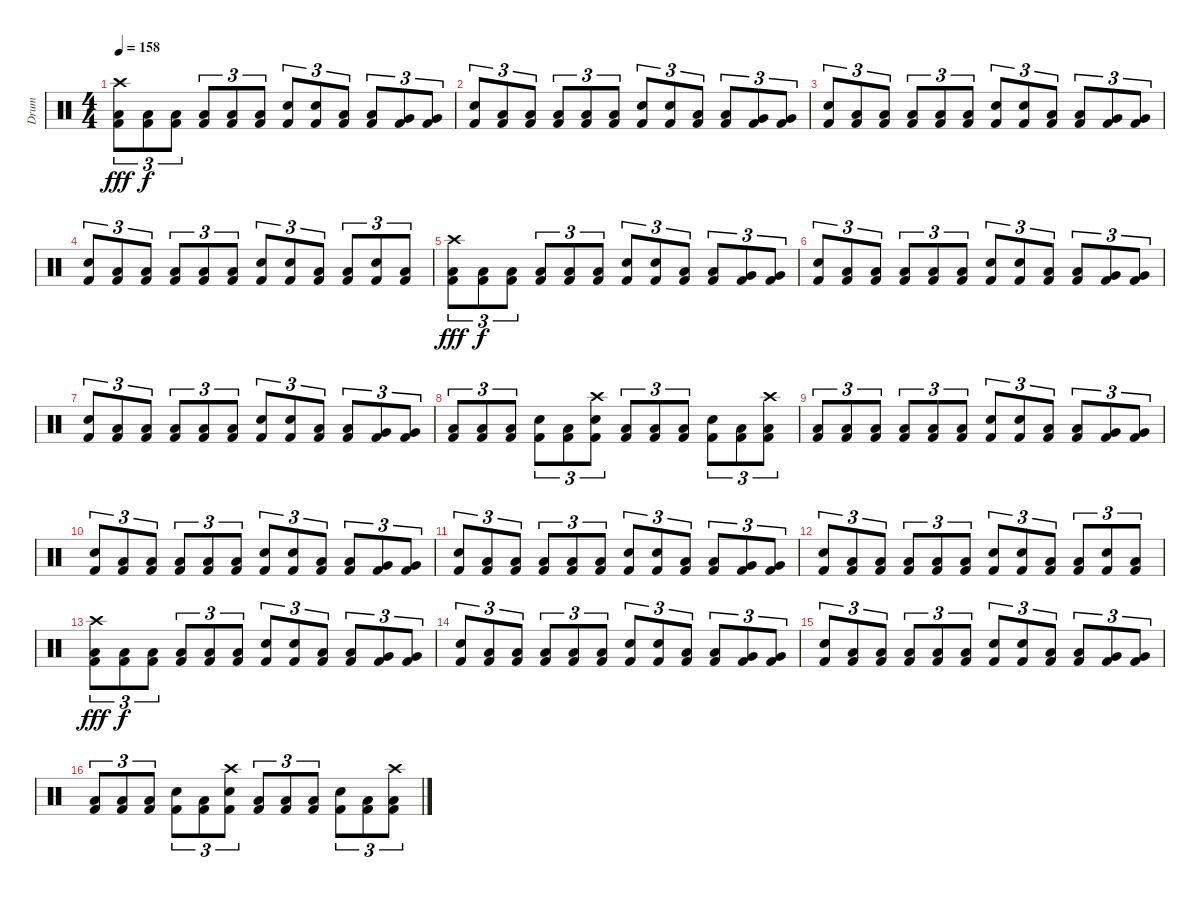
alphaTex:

\track ("Drum" "Drum") {instrument percussion}
\staff {score}
\articulation defaults
\ts (4 4)
\tempo 158
\clef neutral
\ks c
("Crash high (hit)" "Low Floor Tom (hit)" "Kick (hit) 2").8{tu (3 2) dy fff} ("Low Floor Tom (hit)" "Kick (hit) 2").8{tu (3 2) dy f} ("Low Floor Tom (hit)" "Kick (hit) 2").8{tu (3 2)} ("Low Floor Tom (hit)" "Kick (hit) 2").8{tu (3 2)} ("Low Floor Tom (hit)" "Kick (hit) 2").8{tu (3 2)} ("Low Floor Tom (hit)" "Kick (hit) 2").8{tu (3 2)} ("Electric Snare (hit)" "Kick (hit) 2").8{tu (3 2)} ("Electric Snare (hit)" "Kick (hit) 2").8{tu (3 2)} ("Low Tom (hit)" "Kick (hit) 2").8{tu (3 2)} ("Low Tom (hit)" "Kick (hit) 2").8{tu (3 2)} ("Very Low Tom (hit)" "Kick (hit) 2").8{tu (3 2)} ("Very Low Tom (hit)" "Kick (hit) 2").8{tu (3 2)} |
("Electric Snare (hit)" "Kick (hit) 2").8{tu (3 2)} ("Low Floor Tom (hit)" "Kick (hit) 2").8{tu (3 2)} ("Low Floor Tom (hit)" "Kick (hit) 2").8{tu (3 2)} ("Low Floor Tom (hit)" "Kick (hit) 2").8{tu (3 2)} ("Low Floor Tom (hit)" "Kick (hit) 2").8{tu (3 2)} ("Low Floor Tom (hit)" "Kick (hit) 2").8{tu (3 2)} ("Electric Snare (hit)" "Kick (hit) 2").8{tu (3 2)} ("Electric Snare (hit)" "Kick (hit) 2").8{tu (3 2)} ("Low Tom (hit)" "Kick (hit) 2").8{tu (3 2)} ("Low Tom (hit)" "Kick (hit) 2").8{tu (3 2)} ("Very Low Tom (hit)" "Kick (hit) 2").8{tu (3 2)} ("Very Low Tom (hit)" "Kick (hit) 2").8{tu (3 2)} |
("Electric Snare (hit)" "Kick (hit) 2").8{tu (3 2)} ("Low Floor Tom (hit)" "Kick (hit) 2").8{tu (3 2)} ("Low Floor Tom (hit)" "Kick (hit) 2").8{tu (3 2)} ("Low Floor Tom (hit)" "Kick (hit) 2").8{tu (3 2)} ("Low Floor Tom (hit)" "Kick (hit) 2").8{tu (3 2)} ("Low Floor Tom (hit)" "Kick (hit) 2").8{tu (3 2)} ("Electric Snare (hit)" "Kick (hit) 2").8{tu (3 2)} ("Electric Snare (hit)" "Kick (hit) 2").8{tu (3 2)} ("Low Tom (hit)" "Kick (hit) 2").8{tu (3 2)} ("Low Tom (hit)" "Kick (hit) 2").8{tu (3 2)} ("Very Low Tom (hit)" "Kick (hit) 2").8{tu (3 2)} ("Very Low Tom (hit)" "Kick (hit) 2").8{tu (3 2)} |
("Electric Snare (hit)" "Kick (hit) 2").8{tu (3 2)} ("Low Floor Tom (hit)" "Kick (hit) 2").8{tu (3 2)} ("Low Floor Tom (hit)" "Kick (hit) 2").8{tu (3 2)} ("Low Floor Tom (hit)" "Kick (hit) 2").8{tu (3 2)} ("Low Floor Tom (hit)" "Kick (hit) 2").8{tu (3 2)} ("Low Floor Tom (hit)" "Kick (hit) 2").8{tu (3 2)} ("Electric Snare (hit)" "Kick (hit) 2").8{tu (3 2)} ("Electric Snare (hit)" "Kick (hit) 2").8{tu (3 2)} ("Low Floor Tom (hit)" "Kick (hit) 2").8{tu (3 2)} ("Low Floor Tom (hit)" "Kick (hit) 2").8{tu (3 2)} ("Electric Snare (hit)" "Kick (hit) 2").8{tu (3 2)} ("Low Floor Tom (hit)" "Kick (hit) 2").8{tu (3 2)} |
("Crash high (hit)" "Low Floor Tom (hit)" "Kick (hit) 2").8{tu (3 2) dy fff} ("Low Floor Tom (hit)" "Kick (hit) 2").8{tu (3 2) dy f} ("Low Floor Tom (hit)" "Kick (hit) 2").8{tu (3 2)} ("Low Floor Tom (hit)" "Kick (hit) 2").8{tu (3 2)} ("Low Floor Tom (hit)" "Kick (hit) 2").8{tu (3 2)} ("Low Floor Tom (hit)" "Kick (hit) 2").8{tu (3 2)} ("Electric Snare (hit)" "Kick (hit) 2").8{tu (3 2)} ("Electric Snare (hit)" "Kick (hit) 2").8{tu (3 2)} ("Low Tom (hit)" "Kick (hit) 2").8{tu (3 2)} ("Low Tom (hit)" "Kick (hit) 2").8{tu (3 2)} ("Very Low Tom (hit)" "Kick (hit) 2").8{tu (3 2)} ("Very Low Tom (hit)" "Kick (hit) 2").8{tu (3 2)} |
("Electric Snare (hit)" "Kick (hit) 2").8{tu (3 2)} ("Low Floor Tom (hit)" "Kick (hit) 2").8{tu (3 2)} ("Low Floor Tom (hit)" "Kick (hit) 2").8{tu (3 2)} ("Low Floor Tom (hit)" "Kick (hit) 2").8{tu (3 2)} ("Low Floor Tom (hit)" "Kick (hit) 2").8{tu (3 2)} ("Low Floor Tom (hit)" "Kick (hit) 2").8{tu (3 2)} ("Electric Snare (hit)" "Kick (hit) 2").8{tu (3 2)} ("Electric Snare (hit)" "Kick (hit) 2").8{tu (3 2)} ("Low Tom (hit)" "Kick (hit) 2").8{tu (3 2)} ("Low Tom (hit)" "Kick (hit) 2").8{tu (3 2)} ("Very Low Tom (hit)" "Kick (hit) 2").8{tu (3 2)} ("Very Low Tom (hit)" "Kick (hit) 2").8{tu (3 2)} |
("Electric Snare (hit)" "Kick (hit) 2").8{tu (3 2)} ("Low Floor Tom (hit)" "Kick (hit) 2").8{tu (3 2)} ("Low Floor Tom (hit)" "Kick (hit) 2").8{tu (3 2)} ("Low Floor Tom (hit)" "Kick (hit) 2").8{tu (3 2)} ("Low Floor Tom (hit)" "Kick (hit) 2").8{tu (3 2)} ("Low Floor Tom (hit)" "Kick (hit) 2").8{tu (3 2)} ("Electric Snare (hit)" "Kick (hit) 2").8{tu (3 2)} ("Electric Snare (hit)" "Kick (hit) 2").8{tu (3 2)} ("Low Tom (hit)" "Kick (hit) 2").8{tu (3 2)} ("Low Tom (hit)" "Kick (hit) 2").8{tu (3 2)} ("Very Low Tom (hit)" "Kick (hit) 2").8{tu (3 2)} ("Very Low Tom (hit)" "Kick (hit) 2").8{tu (3 2)} |
("Low Floor Tom (hit)" "Kick (hit) 2").8{tu (3 2)} ("Low Floor Tom (hit)" "Kick (hit) 2").8{tu (3 2)} ("Low Floor Tom (hit)" "Kick (hit) 2").8{tu (3 2)} ("Electric Snare (hit)" "Kick (hit) 2").8{tu (3 2)} ("Low Floor Tom (hit)" "Kick (hit) 2").8{tu (3 2)} ("Crash high (hit)" "Electric Snare (hit)" "Kick (hit) 2").8{tu (3 2)} ("Low Floor Tom (hit)" "Kick (hit) 2").8{tu (3 2)} ("Low Floor Tom (hit)" "Kick (hit) 2").8{tu (3 2)} ("Low Floor Tom (hit)" "Kick (hit) 2").8{tu (3 2)} ("Electric Snare (hit)" "Kick (hit) 2").8{tu (3 2)} ("Low Floor Tom (hit)" "Kick (hit) 2").8{tu (3 2)} ("Crash high (hit)" "Low Floor Tom (hit)" "Kick (hit) 2").8{tu (3 2)} |
("Low Floor Tom (hit)" "Kick (hit) 2").8{tu (3 2)} ("Low Floor Tom (hit)" "Kick (hit) 2").8{tu (3 2)} ("Low Floor Tom (hit)" "Kick (hit) 2").8{tu (3 2)} ("Low Floor Tom (hit)" "Kick (hit) 2").8{tu (3 2)} ("Low Floor Tom (hit)" "Kick (hit) 2").8{tu (3 2)} ("Low Floor Tom (hit)" "Kick (hit) 2").8{tu (3 2)} ("Electric Snare (hit)" "Kick (hit) 2").8{tu (3 2)} ("Electric Snare (hit)" "Kick (hit) 2").8{tu (3 2)} ("Low Tom (hit)" "Kick (hit) 2").8{tu (3 2)} ("Low Tom (hit)" "Kick (hit) 2").8{tu (3 2)} ("Very Low Tom (hit)" "Kick (hit) 2").8{tu (3 2)} ("Very Low Tom (hit)" "Kick (hit) 2").8{tu (3 2)} |
("Electric Snare (hit)" "Kick (hit) 2").8{tu (3 2)} ("Low Floor Tom (hit)" "Kick (hit) 2").8{tu (3 2)} ("Low Floor Tom (hit)" "Kick (hit) 2").8{tu (3 2)} ("Low Floor Tom (hit)" "Kick (hit) 2").8{tu (3 2)} ("Low Floor Tom (hit)" "Kick (hit) 2").8{tu (3 2)} ("Low Floor Tom (hit)" "Kick (hit) 2").8{tu (3 2)} ("Electric Snare (hit)" "Kick (hit) 2").8{tu (3 2)} ("Electric Snare (hit)" "Kick (hit) 2").8{tu (3 2)} ("Low Tom (hit)" "Kick (hit) 2").8{tu (3 2)} ("Low Tom (hit)" "Kick (hit) 2").8{tu (3 2)} ("Very Low Tom (hit)" "Kick (hit) 2").8{tu (3 2)} ("Very Low Tom (hit)" "Kick (hit) 2").8{tu (3 2)} |
("Electric Snare (hit)" "Kick (hit) 2").8{tu (3 2)} ("Low Floor Tom (hit)" "Kick (hit) 2").8{tu (3 2)} ("Low Floor Tom (hit)" "Kick (hit) 2").8{tu (3 2)} ("Low Floor Tom (hit)" "Kick (hit) 2").8{tu (3 2)} ("Low Floor Tom (hit)" "Kick (hit) 2").8{tu (3 2)} ("Low Floor Tom (hit)" "Kick (hit) 2").8{tu (3 2)} ("Electric Snare (hit)" "Kick (hit) 2").8{tu (3 2)} ("Electric Snare (hit)" "Kick (hit) 2").8{tu (3 2)} ("Low Tom (hit)" "Kick (hit) 2").8{tu (3 2)} ("Low Tom (hit)" "Kick (hit) 2").8{tu (3 2)} ("Very Low Tom (hit)" "Kick (hit) 2").8{tu (3 2)} ("Very Low Tom (hit)" "Kick (hit) 2").8{tu (3 2)} |
("Electric Snare (hit)" "Kick (hit) 2").8{tu (3 2)} ("Low Floor Tom (hit)" "Kick (hit) 2").8{tu (3 2)} ("Low Floor Tom (hit)" "Kick (hit) 2").8{tu (3 2)} ("Low Floor Tom (hit)" "Kick (hit) 2").8{tu (3 2)} ("Low Floor Tom (hit)" "Kick (hit) 2").8{tu (3 2)} ("Low Floor Tom (hit)" "Kick (hit) 2").8{tu (3 2)} ("Electric Snare (hit)" "Kick (hit) 2").8{tu (3 2)} ("Electric Snare (hit)" "Kick (hit) 2").8{tu (3 2)} ("Low Floor Tom (hit)" "Kick (hit) 2").8{tu (3 2)} ("Low Floor Tom (hit)" "Kick (hit) 2").8{tu (3 2)} ("Electric Snare (hit)" "Kick (hit) 2").8{tu (3 2)} ("Low Floor Tom (hit)" "Kick (hit) 2").8{tu (3 2)} |
("Crash high (hit)" "Low Floor Tom (hit)" "Kick (hit) 2").8{tu (3 2) dy fff} ("Low Floor Tom (hit)" "Kick (hit) 2").8{tu (3 2) dy f} ("Low Floor Tom (hit)" "Kick (hit) 2").8{tu (3 2)} ("Low Floor Tom (hit)" "Kick (hit) 2").8{tu (3 2)} ("Low Floor Tom (hit)" "Kick (hit) 2").8{tu (3 2)} ("Low Floor Tom (hit)" "Kick (hit) 2").8{tu (3 2)} ("Electric Snare (hit)" "Kick (hit) 2").8{tu (3 2)} ("Electric Snare (hit)" "Kick (hit) 2").8{tu (3 2)} ("Low Tom (hit)" "Kick (hit) 2").8{tu (3 2)} ("Low Tom (hit)" "Kick (hit) 2").8{tu (3 2)} ("Very Low Tom (hit)" "Kick (hit) 2").8{tu (3 2)} ("Very Low Tom (hit)" "Kick (hit) 2").8{tu (3 2)} |
("Electric Snare (hit)" "Kick (hit) 2").8{tu (3 2)} ("Low Floor Tom (hit)" "Kick (hit) 2").8{tu (3 2)} ("Low Floor Tom (hit)" "Kick (hit) 2").8{tu (3 2)} ("Low Floor Tom (hit)" "Kick (hit) 2").8{tu (3 2)} ("Low Floor Tom (hit)" "Kick (hit) 2").8{tu (3 2)} ("Low Floor Tom (hit)" "Kick (hit) 2").8{tu (3 2)} ("Electric Snare (hit)" "Kick (hit) 2").8{tu (3 2)} ("Electric Snare (hit)" "Kick (hit) 2").8{tu (3 2)} ("Low Tom (hit)" "Kick (hit) 2").8{tu (3 2)} ("Low Tom (hit)" "Kick (hit) 2").8{tu (3 2)} ("Very Low Tom (hit)" "Kick (hit) 2").8{tu (3 2)} ("Very Low Tom (hit)" "Kick (hit) 2").8{tu (3 2)} |
("Electric Snare (hit)" "Kick (hit) 2").8{tu (3 2)} ("Low Floor Tom (hit)" "Kick (hit) 2").8{tu (3 2)} ("Low Floor Tom (hit)" "Kick (hit) 2").8{tu (3 2)} ("Low Floor Tom (hit)" "Kick (hit) 2").8{tu (3 2)} ("Low Floor Tom (hit)" "Kick (hit) 2").8{tu (3 2)} ("Low Floor Tom (hit)" "Kick (hit) 2").8{tu (3 2)} ("Electric Snare (hit)" "Kick (hit) 2").8{tu (3 2)} ("Electric Snare (hit)" "Kick (hit) 2").8{tu (3 2)} ("Low Tom (hit)" "Kick (hit) 2").8{tu (3 2)} ("Low Tom (hit)" "Kick (hit) 2").8{tu (3 2)} ("Very Low Tom (hit)" "Kick (hit) 2").8{tu (3 2)} ("Very Low Tom (hit)" "Kick (hit) 2").8{tu (3 2)} |
("Low Floor Tom (hit)" "Kick (hit) 2").8{tu (3 2)} ("Low Floor Tom (hit)" "Kick (hit) 2").8{tu (3 2)} ("Low Floor Tom (hit)" "Kick (hit) 2").8{tu (3 2)} ("Electric Snare (hit)" "Kick (hit) 2").8{tu (3 2)} ("Low Floor Tom (hit)" "Kick (hit) 2").8{tu (3 2)} ("Crash high (hit)" "Electric Snare (hit)" "Kick (hit) 2").8{tu (3 2)} ("Low Floor Tom (hit)" "Kick (hit) 2").8{tu (3 2)} ("Low Floor Tom (hit)" "Kick (hit) 2").8{tu (3 2)} ("Low Floor Tom (hit)" "Kick (hit) 2").8{tu (3 2)} ("Electric Snare (hit)" "Kick (hit) 2").8{tu (3 2)} ("Low Floor Tom (hit)" "Kick (hit) 2").8{tu (3 2)} ("Crash high (hit)" "Low Floor Tom (hit)" "Kick (hit) 2").8{tu (3 2)}
